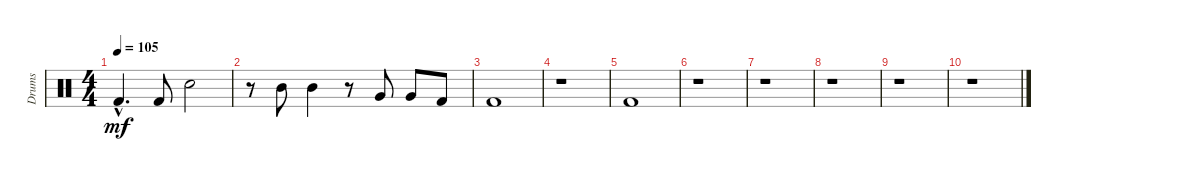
\track ("Drums" "Drums") {instrument percussion}
\staff {score}
\articulation defaults
\ts (4 4)
\tempo 105
\clef neutral
\ks c "Kick (hit) 2"{hac}.4{d dy mf} "Kick (hit) 2".8 "Snare (hit) 2".2
|
r.8 "Mid Tom (hit)".8 "Mid Tom (hit)".4 r.8 "Very Low Tom (hit)".8 "Very Low Tom (hit)".8 "Kick (hit) 2".8 |
"Kick (hit) 2".1 |
r.1 |
"Kick (hit) 2".1 |
r.1 |
r.1 |
r.1 |
r.1 |
r.1
